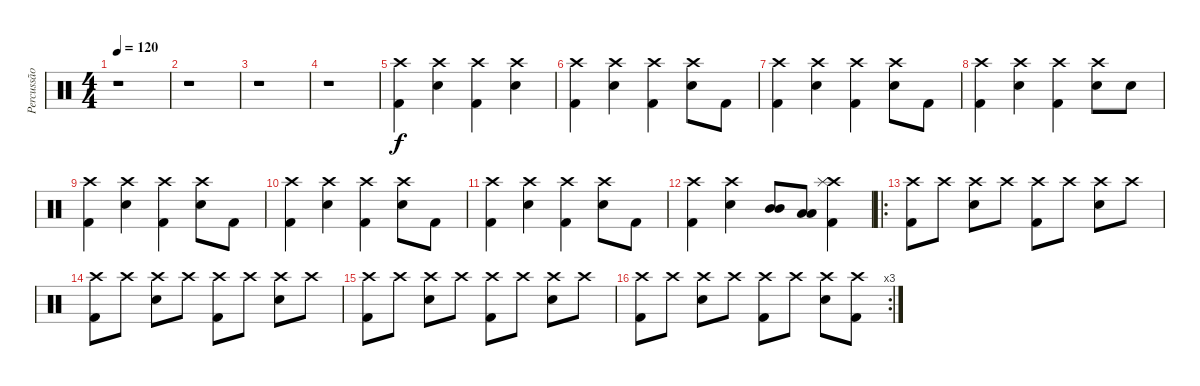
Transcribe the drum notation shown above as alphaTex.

\track ("Percussão" "Percussão") {instrument percussion}
\staff {score}
\articulation defaults
\ts (4 4)
\tempo 120
\clef neutral
\ks c
r.1{dy f} |
r.1 |
r.1 |
r.1 |
("Crash high (hit)" "Kick (hit) 2").4 ("Crash high (hit)" "Snare (hit) 2").4 ("Crash high (hit)" "Kick (hit) 2").4 ("Crash high (hit)" "Snare (hit) 2").4 |
("Crash high (hit)" "Kick (hit) 2").4 ("Crash high (hit)" "Snare (hit) 2").4 ("Crash high (hit)" "Kick (hit) 2").4 ("Crash high (hit)" "Snare (hit) 2").8 "Kick (hit) 2".8 |
("Crash high (hit)" "Kick (hit) 2").4 ("Crash high (hit)" "Snare (hit) 2").4 ("Crash high (hit)" "Kick (hit) 2").4 ("Crash high (hit)" "Snare (hit) 2").8 "Kick (hit) 2".8 |
("Crash high (hit)" "Kick (hit) 2").4 ("Crash high (hit)" "Snare (hit) 2").4 ("Crash high (hit)" "Kick (hit) 2").4 ("Crash high (hit)" "Snare (hit) 2").8 "Snare (hit) 2".8 |
("Crash high (hit)" "Kick (hit) 2").4 ("Crash high (hit)" "Snare (hit) 2").4 ("Crash high (hit)" "Kick (hit) 2").4 ("Crash high (hit)" "Snare (hit) 2").8 "Kick (hit) 2".8 |
("Crash high (hit)" "Kick (hit) 2").4 ("Crash high (hit)" "Snare (hit) 2").4 ("Crash high (hit)" "Kick (hit) 2").4 ("Crash high (hit)" "Snare (hit) 2").8 "Kick (hit) 2".8 |
("Crash high (hit)" "Kick (hit) 2").4 ("Crash high (hit)" "Snare (hit) 2").4 ("Crash high (hit)" "Kick (hit) 2").4 ("Crash high (hit)" "Snare (hit) 2").8 "Kick (hit) 2".8 |
("Crash high (hit)" "Kick (hit) 2").4 ("Crash high (hit)" "Snare (hit) 2").4 ("Mid Tom (hit)" "Mid Tom (hit)").8 ("Low Tom (hit)" "Low Tom (hit)").8 ("Crash high (hit)" "Splash (hit)" "Kick (hit) 2").4 |
\ro
("Crash high (hit)" "Kick (hit) 2").8 "Crash high (hit)".8 ("Crash high (hit)" "Snare (hit) 2").8 "Crash high (hit)".8 ("Crash high (hit)" "Kick (hit) 2").8 "Crash high (hit)".8 ("Crash high (hit)" "Snare (hit) 2").8 "Crash high (hit)".8 |
("Crash high (hit)" "Kick (hit) 2").8 "Crash high (hit)".8 ("Crash high (hit)" "Snare (hit) 2").8 "Crash high (hit)".8 ("Crash high (hit)" "Kick (hit) 2").8 "Crash high (hit)".8 ("Crash high (hit)" "Snare (hit) 2").8 "Crash high (hit)".8 |
("Crash high (hit)" "Kick (hit) 2").8 "Crash high (hit)".8 ("Crash high (hit)" "Snare (hit) 2").8 "Crash high (hit)".8 ("Crash high (hit)" "Kick (hit) 2").8 "Crash high (hit)".8 ("Crash high (hit)" "Snare (hit) 2").8 "Crash high (hit)".8 |
\rc 3
("Crash high (hit)" "Kick (hit) 2").8 "Crash high (hit)".8 ("Crash high (hit)" "Snare (hit) 2").8 "Crash high (hit)".8 ("Crash high (hit)" "Kick (hit) 2").8 "Crash high (hit)".8 ("Crash high (hit)" "Snare (hit) 2").8 ("Crash high (hit)" "Kick (hit) 2").8
